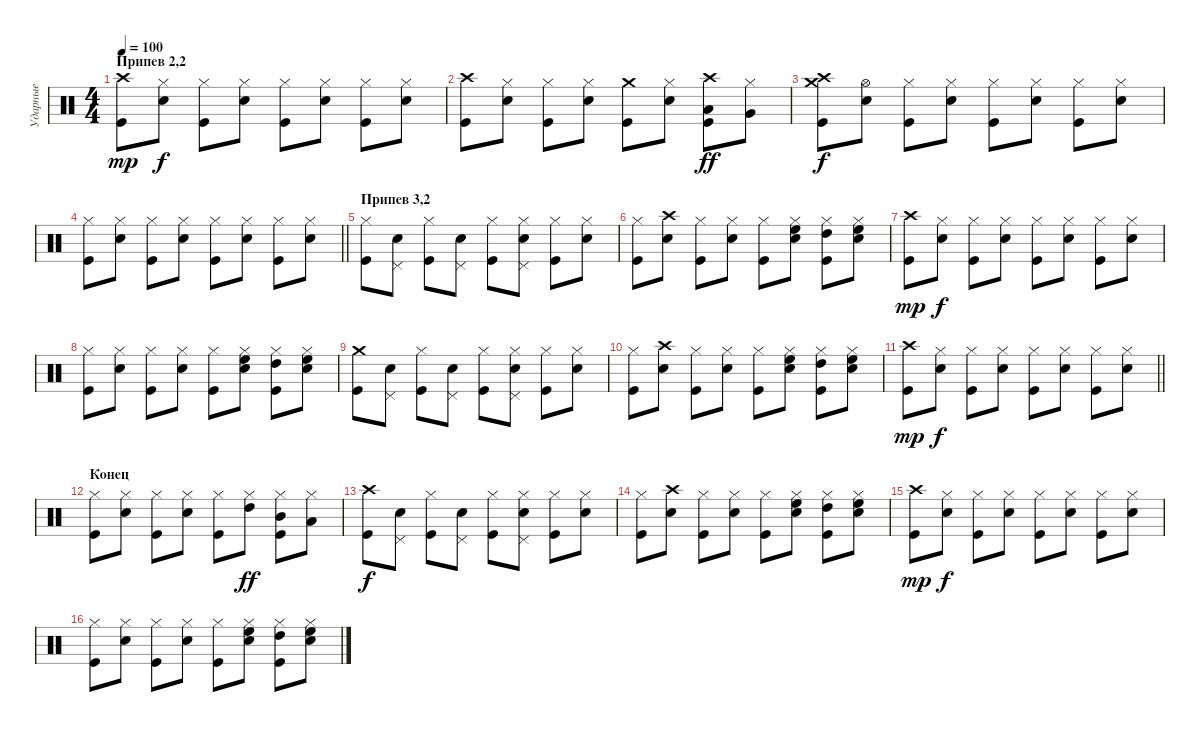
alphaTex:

\track ("Ударные" "Ударные") {instrument percussion}
\staff {score}
\articulation defaults
\ts (4 4)
\section ("" "Припев 2,2")
\tempo 100
\clef neutral
\ks c
("Kick (hit)" "Crash high (hit)").8{dy mp} ("Hi-Hat (closed)" "Snare (hit) 2").8{dy f} ("Hi-Hat (closed)" "Kick (hit)").8 ("Hi-Hat (closed)" "Snare (hit) 2").8 ("Hi-Hat (closed)" "Kick (hit)").8 ("Hi-Hat (closed)" "Snare (hit) 2").8 ("Hi-Hat (closed)" "Kick (hit)").8 ("Hi-Hat (closed)" "Snare (hit) 2").8 |
("Crash high (hit)" "Kick (hit)").8 ("Hi-Hat (closed)" "Snare (hit) 2").8 ("Hi-Hat (closed)" "Kick (hit)").8 ("Hi-Hat (closed)" "Snare (hit) 2").8 ("Crash medium (hit)" "Kick (hit)").8 ("Hi-Hat (closed)" "Snare (hit) 2").8 ("Crash high (hit)" "Kick (hit)" "Low Tom (hit)").8{dy ff} ("Hi-Hat (closed)" "Very Low Tom (hit)").8 |
("Crash high (hit)" "Crash medium (hit)" "Kick (hit)").8{dy f} ("Hi-Hat (open)" "Snare (hit) 2").8 ("Hi-Hat (closed)" "Kick (hit)").8 ("Hi-Hat (closed)" "Snare (hit) 2").8 ("Hi-Hat (closed)" "Kick (hit)").8 ("Hi-Hat (closed)" "Snare (hit) 2").8 ("Hi-Hat (closed)" "Kick (hit)").8 ("Hi-Hat (closed)" "Snare (hit) 2").8 |
\barLineRight lightlight
("Hi-Hat (closed)" "Kick (hit)").8 ("Hi-Hat (closed)" "Snare (hit) 2").8 ("Hi-Hat (closed)" "Kick (hit)").8 ("Hi-Hat (closed)" "Snare (hit) 2").8 ("Hi-Hat (closed)" "Kick (hit)").8 ("Hi-Hat (closed)" "Snare (hit) 2").8 ("Hi-Hat (closed)" "Kick (hit)").8 ("Hi-Hat (closed)" "Snare (hit) 2").8 |
\section ("" "Припев 3,2")
("Kick (hit)" "Hi-Hat (closed)").8 ("Snare (hit) 2" "Pedal Hi-Hat (hit)").8 ("Kick (hit)" "Hi-Hat (closed)").8 ("Snare (hit) 2" "Pedal Hi-Hat (hit)").8 ("Kick (hit)" "Hi-Hat (closed)").8 ("Snare (hit) 2" "Hi-Hat (closed)" "Pedal Hi-Hat (hit)").8 ("Hi-Hat (closed)" "Kick (hit)").8 ("Snare (hit) 2" "Hi-Hat (closed)").8 |
("Hi-Hat (closed)" "Kick (hit)").8 ("Crash high (hit)" "Snare (hit) 2").8 ("Kick (hit)" "Hi-Hat (closed)").8 ("Snare (hit) 2" "Hi-Hat (closed)").8 ("Kick (hit)" "Hi-Hat (closed)").8 ("Snare (hit) 2" "Hi-Hat (closed)" "High Floor Tom (hit)").8 ("Kick (hit)" "Hi-Hat (closed)" "High Tom (hit)").8 ("Snare (hit) 2" "Hi-Hat (closed)" "High Floor Tom (hit)").8 |
("Kick (hit)" "Crash high (hit)").8{dy mp} ("Hi-Hat (closed)" "Snare (hit) 2").8{dy f} ("Hi-Hat (closed)" "Kick (hit)").8 ("Hi-Hat (closed)" "Snare (hit) 2").8 ("Hi-Hat (closed)" "Kick (hit)").8 ("Hi-Hat (closed)" "Snare (hit) 2").8 ("Hi-Hat (closed)" "Kick (hit)").8 ("Hi-Hat (closed)" "Snare (hit) 2").8 |
("Hi-Hat (closed)" "Kick (hit)").8 ("Hi-Hat (closed)" "Snare (hit) 2").8 ("Kick (hit)" "Hi-Hat (closed)").8 ("Snare (hit) 2" "Hi-Hat (closed)").8 ("Kick (hit)" "Hi-Hat (closed)").8 ("Snare (hit) 2" "Hi-Hat (closed)" "High Floor Tom (hit)").8 ("Kick (hit)" "Hi-Hat (closed)" "High Tom (hit)").8 ("Snare (hit) 2" "Hi-Hat (closed)" "High Floor Tom (hit)").8 |
("Kick (hit)" "Crash medium (hit)").8 ("Snare (hit) 2" "Pedal Hi-Hat (hit)").8 ("Kick (hit)" "Hi-Hat (closed)").8 ("Snare (hit) 2" "Pedal Hi-Hat (hit)").8 ("Kick (hit)" "Hi-Hat (closed)").8 ("Snare (hit) 2" "Hi-Hat (closed)" "Pedal Hi-Hat (hit)").8 ("Hi-Hat (closed)" "Kick (hit)").8 ("Snare (hit) 2" "Hi-Hat (closed)").8 |
("Hi-Hat (closed)" "Kick (hit)").8 ("Crash high (hit)" "Snare (hit) 2").8 ("Kick (hit)" "Hi-Hat (closed)").8 ("Snare (hit) 2" "Hi-Hat (closed)").8 ("Kick (hit)" "Hi-Hat (closed)").8 ("Snare (hit) 2" "Hi-Hat (closed)" "High Floor Tom (hit)").8 ("Kick (hit)" "Hi-Hat (closed)" "High Tom (hit)").8 ("Snare (hit) 2" "Hi-Hat (closed)" "High Floor Tom (hit)").8 |
\barLineRight lightlight
("Kick (hit)" "Crash high (hit)").8{dy mp} ("Hi-Hat (closed)" "Snare (hit) 2").8{dy f} ("Hi-Hat (closed)" "Kick (hit)").8 ("Hi-Hat (closed)" "Snare (hit) 2").8 ("Hi-Hat (closed)" "Kick (hit)").8 ("Hi-Hat (closed)" "Snare (hit) 2").8 ("Hi-Hat (closed)" "Kick (hit)").8 ("Hi-Hat (closed)" "Snare (hit) 2").8 |
\section ("" "Конец")
("Hi-Hat (closed)" "Kick (hit)").8 ("Hi-Hat (closed)" "Snare (hit) 2").8 ("Hi-Hat (closed)" "Kick (hit)").8 ("Hi-Hat (closed)" "Snare (hit) 2").8 ("Hi-Hat (closed)" "Kick (hit)").8 ("Hi-Hat (closed)" "High Tom (hit)").8{dy ff} ("Hi-Hat (closed)" "Kick (hit)" "Mid Tom (hit)").8 ("Hi-Hat (closed)" "Low Tom (hit)").8 |
("Kick (hit)" "Crash high (hit)").8{dy f} ("Snare (hit) 2" "Pedal Hi-Hat (hit)").8 ("Kick (hit)" "Hi-Hat (closed)").8 ("Snare (hit) 2" "Pedal Hi-Hat (hit)").8 ("Kick (hit)" "Hi-Hat (closed)").8 ("Snare (hit) 2" "Hi-Hat (closed)" "Pedal Hi-Hat (hit)").8 ("Hi-Hat (closed)" "Kick (hit)").8 ("Snare (hit) 2" "Hi-Hat (closed)").8 |
("Hi-Hat (closed)" "Kick (hit)").8 ("Crash high (hit)" "Snare (hit) 2").8 ("Kick (hit)" "Hi-Hat (closed)").8 ("Snare (hit) 2" "Hi-Hat (closed)").8 ("Kick (hit)" "Hi-Hat (closed)").8 ("Snare (hit) 2" "Hi-Hat (closed)" "High Floor Tom (hit)").8 ("Kick (hit)" "Hi-Hat (closed)" "High Tom (hit)").8 ("Snare (hit) 2" "Hi-Hat (closed)" "High Floor Tom (hit)").8 |
("Kick (hit)" "Crash high (hit)").8{dy mp} ("Hi-Hat (closed)" "Snare (hit) 2").8{dy f} ("Hi-Hat (closed)" "Kick (hit)").8 ("Hi-Hat (closed)" "Snare (hit) 2").8 ("Hi-Hat (closed)" "Kick (hit)").8 ("Hi-Hat (closed)" "Snare (hit) 2").8 ("Hi-Hat (closed)" "Kick (hit)").8 ("Hi-Hat (closed)" "Snare (hit) 2").8 |
("Hi-Hat (closed)" "Kick (hit)").8 ("Hi-Hat (closed)" "Snare (hit) 2").8 ("Kick (hit)" "Hi-Hat (closed)").8 ("Snare (hit) 2" "Hi-Hat (closed)").8 ("Kick (hit)" "Hi-Hat (closed)").8 ("Snare (hit) 2" "Hi-Hat (closed)" "High Floor Tom (hit)").8 ("Kick (hit)" "Hi-Hat (closed)" "High Tom (hit)").8 ("Snare (hit) 2" "Hi-Hat (closed)" "High Floor Tom (hit)").8
